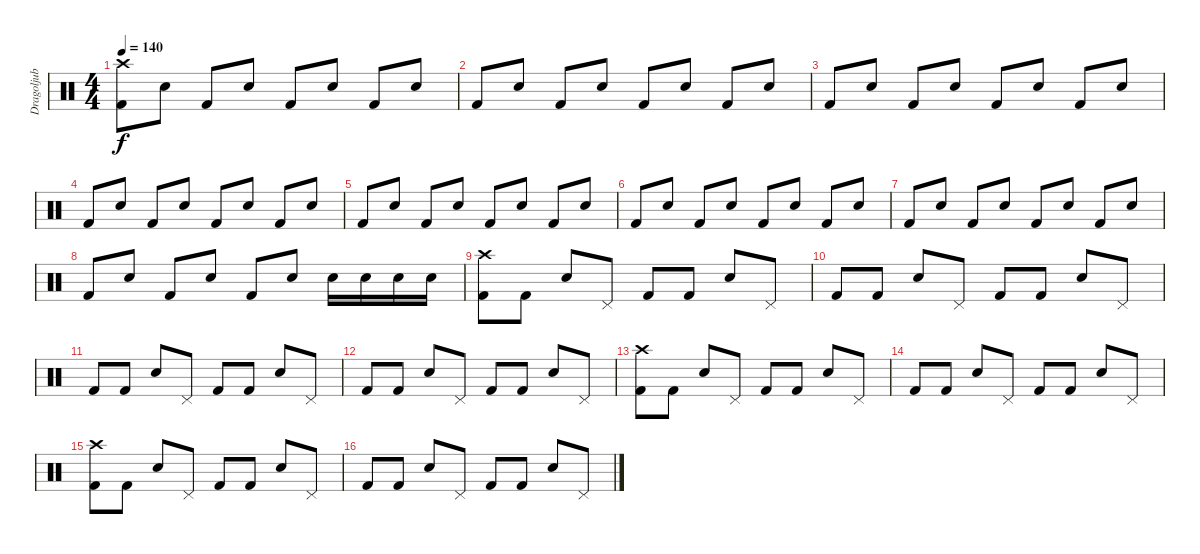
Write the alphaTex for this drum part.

\track ("Dragoljub Djuricic" "Dragoljub ") {instrument percussion}
\staff {score}
\articulation defaults
\ts (4 4)
\tempo 140
\clef neutral
\ks c
("Kick (hit) 2" "Crash high (hit)").8{dy f} "Snare (hit) 2".8 "Kick (hit) 2".8 "Snare (hit) 2".8 "Kick (hit) 2".8 "Snare (hit) 2".8 "Kick (hit) 2".8 "Snare (hit) 2".8 |
"Kick (hit) 2".8 "Snare (hit) 2".8 "Kick (hit) 2".8 "Snare (hit) 2".8 "Kick (hit) 2".8 "Snare (hit) 2".8 "Kick (hit) 2".8 "Snare (hit) 2".8 |
"Kick (hit) 2".8 "Snare (hit) 2".8 "Kick (hit) 2".8 "Snare (hit) 2".8 "Kick (hit) 2".8 "Snare (hit) 2".8 "Kick (hit) 2".8 "Snare (hit) 2".8 |
"Kick (hit) 2".8 "Snare (hit) 2".8 "Kick (hit) 2".8 "Snare (hit) 2".8 "Kick (hit) 2".8 "Snare (hit) 2".8 "Kick (hit) 2".8 "Snare (hit) 2".8 |
"Kick (hit) 2".8 "Snare (hit) 2".8 "Kick (hit) 2".8 "Snare (hit) 2".8 "Kick (hit) 2".8 "Snare (hit) 2".8 "Kick (hit) 2".8 "Snare (hit) 2".8 |
"Kick (hit) 2".8 "Snare (hit) 2".8 "Kick (hit) 2".8 "Snare (hit) 2".8 "Kick (hit) 2".8 "Snare (hit) 2".8 "Kick (hit) 2".8 "Snare (hit) 2".8 |
"Kick (hit) 2".8 "Snare (hit) 2".8 "Kick (hit) 2".8 "Snare (hit) 2".8 "Kick (hit) 2".8 "Snare (hit) 2".8 "Kick (hit) 2".8 "Snare (hit) 2".8 |
"Kick (hit) 2".8 "Snare (hit) 2".8 "Kick (hit) 2".8 "Snare (hit) 2".8 "Kick (hit) 2".8 "Snare (hit) 2".8 "Snare (hit) 2".16 "Snare (hit) 2".16 "Snare (hit) 2".16 "Snare (hit) 2".16 |
("Kick (hit) 2" "Crash high (hit)").8 "Kick (hit) 2".8 "Snare (hit) 2".8 "Pedal Hi-Hat (hit)".8 "Kick (hit) 2".8 "Kick (hit) 2".8 "Snare (hit) 2".8 "Pedal Hi-Hat (hit)".8 |
"Kick (hit) 2".8 "Kick (hit) 2".8 "Snare (hit) 2".8 "Pedal Hi-Hat (hit)".8 "Kick (hit) 2".8 "Kick (hit) 2".8 "Snare (hit) 2".8 "Pedal Hi-Hat (hit)".8 |
"Kick (hit) 2".8 "Kick (hit) 2".8 "Snare (hit) 2".8 "Pedal Hi-Hat (hit)".8 "Kick (hit) 2".8 "Kick (hit) 2".8 "Snare (hit) 2".8 "Pedal Hi-Hat (hit)".8 |
"Kick (hit) 2".8 "Kick (hit) 2".8 "Snare (hit) 2".8 "Pedal Hi-Hat (hit)".8 "Kick (hit) 2".8 "Kick (hit) 2".8 "Snare (hit) 2".8 "Pedal Hi-Hat (hit)".8 |
("Kick (hit) 2" "Crash high (hit)").8 "Kick (hit) 2".8 "Snare (hit) 2".8 "Pedal Hi-Hat (hit)".8 "Kick (hit) 2".8 "Kick (hit) 2".8 "Snare (hit) 2".8 "Pedal Hi-Hat (hit)".8 |
"Kick (hit) 2".8 "Kick (hit) 2".8 "Snare (hit) 2".8 "Pedal Hi-Hat (hit)".8 "Kick (hit) 2".8 "Kick (hit) 2".8 "Snare (hit) 2".8 "Pedal Hi-Hat (hit)".8 |
("Kick (hit) 2" "Crash high (hit)").8 "Kick (hit) 2".8 "Snare (hit) 2".8 "Pedal Hi-Hat (hit)".8 "Kick (hit) 2".8 "Kick (hit) 2".8 "Snare (hit) 2".8 "Pedal Hi-Hat (hit)".8 |
"Kick (hit) 2".8 "Kick (hit) 2".8 "Snare (hit) 2".8 "Pedal Hi-Hat (hit)".8 "Kick (hit) 2".8 "Kick (hit) 2".8 "Snare (hit) 2".8 "Pedal Hi-Hat (hit)".8
